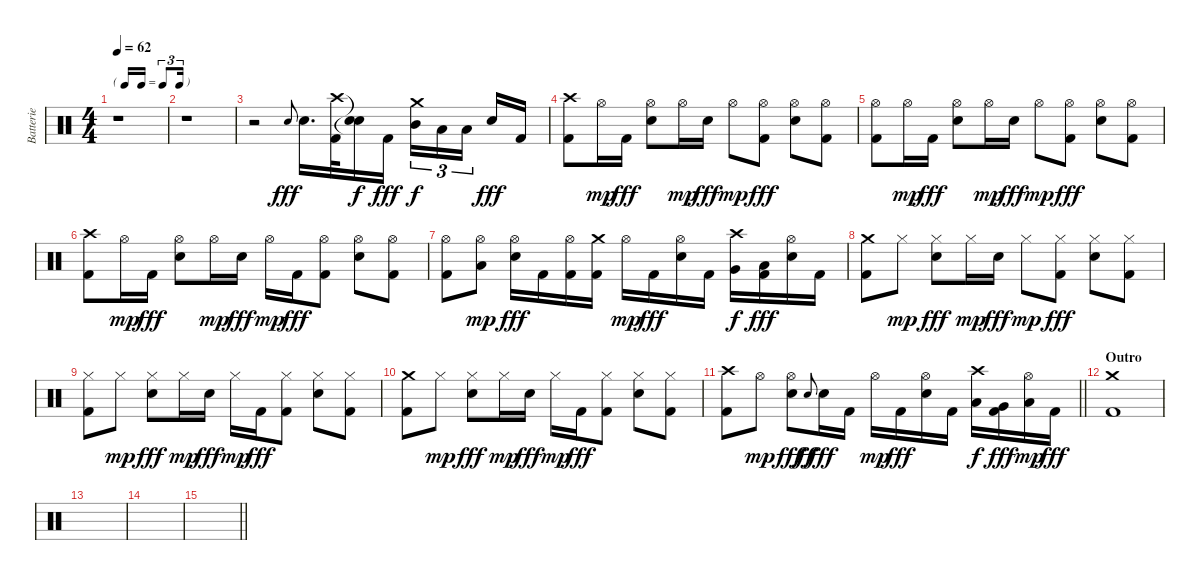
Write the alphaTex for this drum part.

\track ("Batterie" "Batterie") {instrument percussion}
\staff {score}
\articulation defaults
\ts (4 4)
\tf triplet16th
\tempo 62
\clef neutral
\ks c
r.1{dy f} |
r.1 |
r.2 "Snare (hit) 2".8{gr onbeat dy fff} "Snare (hit) 2".16{d} ("Crash high (hit)" "Kick (hit) 2").32 ("Snare (hit)"{t} "Snare (hit)"{t}).16{dy f} "Kick (hit) 2".16{dy fff} ("Crash medium (hit)" "Mid Tom (hit)").16{tu (3 2) dy f} "Low Tom (hit)".16{tu (3 2)} "Low Floor Tom (hit)".16{tu (3 2) beam splitsecondary} "Snare (hit) 2".16{dy fff} "Kick (hit) 2".16 |
("Crash high (hit)" "Kick (hit) 2").8 "Hi-Hat (open)".16{dy mp} "Kick (hit) 2".16{dy fff} ("Hi-Hat (open)" "Snare (hit) 2").8 "Hi-Hat (open)".16{dy mp} "Snare (hit) 2".16{dy fff} "Hi-Hat (open)".8{dy mp} ("Hi-Hat (open)" "Kick (hit) 2").8{dy fff} ("Hi-Hat (open)" "Snare (hit) 2").8 ("Hi-Hat (open)" "Kick (hit) 2").8 |
("Hi-Hat (open)" "Kick (hit) 2").8 "Hi-Hat (open)".16{dy mp} "Kick (hit) 2".16{dy fff} ("Hi-Hat (open)" "Snare (hit) 2").8 "Hi-Hat (open)".16{dy mp} "Snare (hit) 2".16{dy fff} "Hi-Hat (open)".8{dy mp} ("Hi-Hat (open)" "Kick (hit) 2").8{dy fff} ("Hi-Hat (open)" "Snare (hit) 2").8 ("Hi-Hat (open)" "Kick (hit) 2").8 |
("Crash high (hit)" "Kick (hit) 2").8 "Hi-Hat (open)".16{dy mp} "Kick (hit) 2".16{dy fff} ("Hi-Hat (open)" "Snare (hit) 2").8 "Hi-Hat (open)".16{dy mp} "Snare (hit) 2".16{dy fff} "Hi-Hat (open)".16{dy mp} "Kick (hit) 2".16{dy fff} ("Hi-Hat (open)" "Kick (hit) 2").8 ("Hi-Hat (open)" "Snare (hit) 2").8 ("Hi-Hat (open)" "Kick (hit) 2").8 |
("Hi-Hat (open)" "Kick (hit) 2").8 ("Hi-Hat (open)" "Low Floor Tom (hit)").8{dy mp} ("Hi-Hat (open)" "Snare (hit) 2").16{dy fff} "Kick (hit) 2".16 ("Hi-Hat (open)" "Kick (hit) 2").16 ("Crash medium (hit)" "Kick (hit) 2").16 "Hi-Hat (open)".16{dy mp} "Kick (hit) 2".16{dy fff} ("Hi-Hat (open)" "Snare (hit) 2").16 "Kick (hit) 2".16 ("Crash high (hit)" "Very Low Tom (hit)").16{dy f} ("Low Floor Tom (hit)" "Kick (hit) 2").16{dy fff} ("Hi-Hat (open)" "Snare (hit) 2").16 "Kick (hit) 2".16 |
("Crash medium (hit)" "Kick (hit) 2").8 "Hi-Hat (closed)".8{dy mp} ("Hi-Hat (closed)" "Snare (hit) 2").8{dy fff} "Hi-Hat (closed)".16{dy mp} "Snare (hit) 2".16{dy fff} "Hi-Hat (closed)".8{dy mp} ("Hi-Hat (closed)" "Kick (hit) 2").8{dy fff} ("Hi-Hat (closed)" "Snare (hit) 2").8 ("Hi-Hat (closed)" "Kick (hit) 2").8 |
("Hi-Hat (closed)" "Kick (hit) 2").8 "Hi-Hat (closed)".8{dy mp} ("Hi-Hat (closed)" "Snare (hit) 2").8{dy fff} "Hi-Hat (closed)".16{dy mp} "Snare (hit) 2".16{dy fff} "Hi-Hat (closed)".16{dy mp} "Kick (hit) 2".16{dy fff} ("Hi-Hat (closed)" "Kick (hit) 2").8 ("Hi-Hat (closed)" "Snare (hit) 2").8 ("Hi-Hat (closed)" "Kick (hit) 2").8 |
("Crash medium (hit)" "Kick (hit) 2").8 "Hi-Hat (closed)".8{dy mp} ("Hi-Hat (closed)" "Snare (hit) 2").8{dy fff} "Hi-Hat (closed)".16{dy mp} "Snare (hit) 2".16{dy fff} "Hi-Hat (closed)".16{dy mp} "Kick (hit) 2".16{dy fff} ("Hi-Hat (closed)" "Kick (hit) 2").8 ("Hi-Hat (closed)" "Snare (hit) 2").8 ("Hi-Hat (closed)" "Kick (hit) 2").8 |
\barLineRight lightlight
("Crash high (hit)" "Kick (hit) 2").8 "Hi-Hat (open)".8{dy mp} ("Hi-Hat (open)" "Snare (hit) 2").8{dy fff} "Snare (hit) 2".8{gr onbeat dy ff} "Snare (hit) 2".16{dy fff} "Kick (hit) 2".16 "Hi-Hat (open)".16{dy mp} "Kick (hit) 2".16{dy fff} ("Hi-Hat (open)" "Snare (hit) 2").16 "Kick (hit) 2".16 ("Crash high (hit)" "Low Tom (hit)").16{dy f} ("Very Low Tom (hit)" "Kick (hit) 2").16{dy fff} ("Hi-Hat (open)" "Low Floor Tom (hit)").16{dy mp} "Kick (hit) 2".16{dy fff} |
\section ("" "Outro")
("Crash medium (hit)" "Kick (hit) 2").1 |
|
|
\barLineRight lightlight
